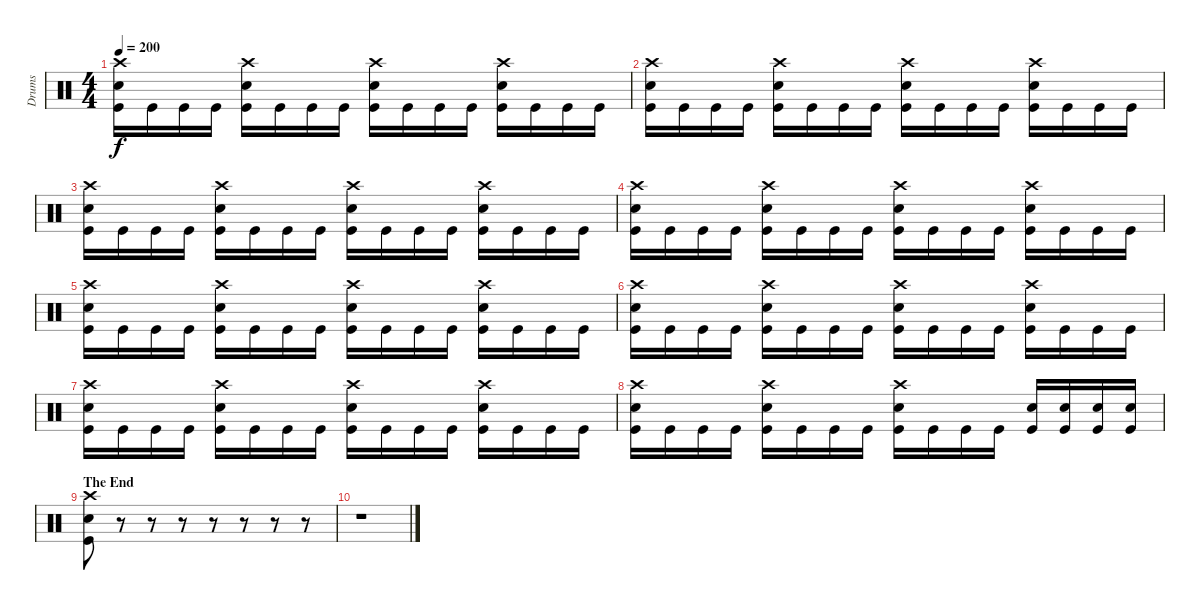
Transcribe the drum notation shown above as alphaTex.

\track ("Drums" "Drums") {instrument percussion}
\staff {score}
\articulation defaults
\ts (4 4)
\tempo 200
\clef neutral
\ks c
("Crash high (hit)" "Snare (hit) 2" "Kick (hit)").16{dy f} "Kick (hit)".16 "Kick (hit)".16 "Kick (hit)".16 ("Crash high (hit)" "Snare (hit) 2" "Kick (hit)").16 "Kick (hit)".16 "Kick (hit)".16 "Kick (hit)".16 ("Crash high (hit)" "Snare (hit) 2" "Kick (hit)").16 "Kick (hit)".16 "Kick (hit)".16 "Kick (hit)".16 ("Crash high (hit)" "Snare (hit) 2" "Kick (hit)").16 "Kick (hit)".16 "Kick (hit)".16 "Kick (hit)".16 |
("Crash high (hit)" "Snare (hit) 2" "Kick (hit)").16 "Kick (hit)".16 "Kick (hit)".16 "Kick (hit)".16 ("Crash high (hit)" "Snare (hit) 2" "Kick (hit)").16 "Kick (hit)".16 "Kick (hit)".16 "Kick (hit)".16 ("Crash high (hit)" "Snare (hit) 2" "Kick (hit)").16 "Kick (hit)".16 "Kick (hit)".16 "Kick (hit)".16 ("Crash high (hit)" "Snare (hit) 2" "Kick (hit)").16 "Kick (hit)".16 "Kick (hit)".16 "Kick (hit)".16 |
("Crash high (hit)" "Snare (hit) 2" "Kick (hit)").16 "Kick (hit)".16 "Kick (hit)".16 "Kick (hit)".16 ("Crash high (hit)" "Snare (hit) 2" "Kick (hit)").16 "Kick (hit)".16 "Kick (hit)".16 "Kick (hit)".16 ("Crash high (hit)" "Snare (hit) 2" "Kick (hit)").16 "Kick (hit)".16 "Kick (hit)".16 "Kick (hit)".16 ("Crash high (hit)" "Snare (hit) 2" "Kick (hit)").16 "Kick (hit)".16 "Kick (hit)".16 "Kick (hit)".16 |
("Crash high (hit)" "Snare (hit) 2" "Kick (hit)").16 "Kick (hit)".16 "Kick (hit)".16 "Kick (hit)".16 ("Crash high (hit)" "Snare (hit) 2" "Kick (hit)").16 "Kick (hit)".16 "Kick (hit)".16 "Kick (hit)".16 ("Crash high (hit)" "Snare (hit) 2" "Kick (hit)").16 "Kick (hit)".16 "Kick (hit)".16 "Kick (hit)".16 ("Crash high (hit)" "Snare (hit) 2" "Kick (hit)").16 "Kick (hit)".16 "Kick (hit)".16 "Kick (hit)".16 |
("Crash high (hit)" "Snare (hit) 2" "Kick (hit)").16 "Kick (hit)".16 "Kick (hit)".16 "Kick (hit)".16 ("Crash high (hit)" "Snare (hit) 2" "Kick (hit)").16 "Kick (hit)".16 "Kick (hit)".16 "Kick (hit)".16 ("Crash high (hit)" "Snare (hit) 2" "Kick (hit)").16 "Kick (hit)".16 "Kick (hit)".16 "Kick (hit)".16 ("Crash high (hit)" "Snare (hit) 2" "Kick (hit)").16 "Kick (hit)".16 "Kick (hit)".16 "Kick (hit)".16 |
("Crash high (hit)" "Snare (hit) 2" "Kick (hit)").16 "Kick (hit)".16 "Kick (hit)".16 "Kick (hit)".16 ("Crash high (hit)" "Snare (hit) 2" "Kick (hit)").16 "Kick (hit)".16 "Kick (hit)".16 "Kick (hit)".16 ("Crash high (hit)" "Snare (hit) 2" "Kick (hit)").16 "Kick (hit)".16 "Kick (hit)".16 "Kick (hit)".16 ("Crash high (hit)" "Snare (hit) 2" "Kick (hit)").16 "Kick (hit)".16 "Kick (hit)".16 "Kick (hit)".16 |
("Crash high (hit)" "Snare (hit) 2" "Kick (hit)").16 "Kick (hit)".16 "Kick (hit)".16 "Kick (hit)".16 ("Crash high (hit)" "Snare (hit) 2" "Kick (hit)").16 "Kick (hit)".16 "Kick (hit)".16 "Kick (hit)".16 ("Crash high (hit)" "Snare (hit) 2" "Kick (hit)").16 "Kick (hit)".16 "Kick (hit)".16 "Kick (hit)".16 ("Crash high (hit)" "Snare (hit) 2" "Kick (hit)").16 "Kick (hit)".16 "Kick (hit)".16 "Kick (hit)".16 |
("Crash high (hit)" "Snare (hit) 2" "Kick (hit)").16 "Kick (hit)".16 "Kick (hit)".16 "Kick (hit)".16 ("Crash high (hit)" "Snare (hit) 2" "Kick (hit)").16 "Kick (hit)".16 "Kick (hit)".16 "Kick (hit)".16 ("Crash high (hit)" "Snare (hit) 2" "Kick (hit)").16 "Kick (hit)".16 "Kick (hit)".16 "Kick (hit)".16 ("Snare (hit) 2" "Kick (hit)").16 ("Snare (hit) 2" "Kick (hit)").16 ("Snare (hit) 2" "Kick (hit)").16 ("Snare (hit) 2" "Kick (hit)").16 |
\section ("" "The End")
("Crash high (hit)" "Snare (hit) 2" "Kick (hit)").8 r.8 r.8 r.8 r.8 r.8 r.8 r.8 |
r.1
